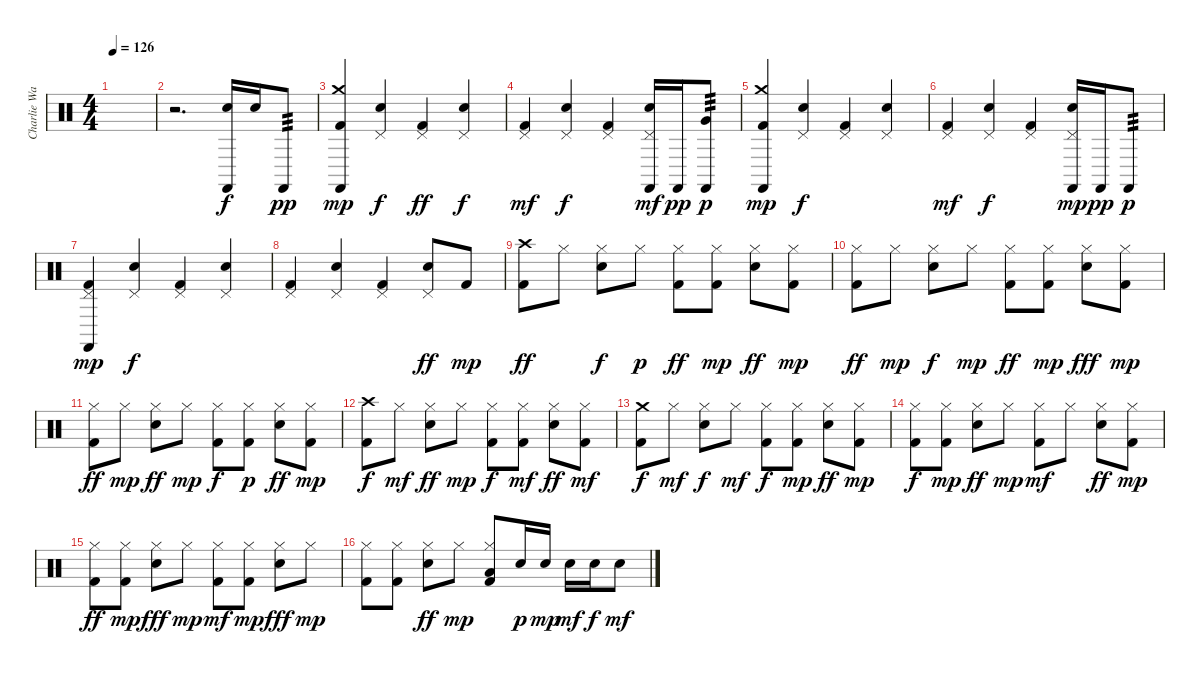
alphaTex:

\track ("Charlie Watts" "Charlie Wa") {instrument percussion}
\staff {score}
\articulation defaults
\ts (4 4)
\tempo 126
\clef neutral
\ks c
|
r.2{d} ("Electric Snare (hit)" "Castanets (hit)").16 "Electric Snare (hit)".16{dy f} "Castanets (hit)".8{tp 3 dy pp} |
("Kick (hit) 2" "Crash medium (hit)" "Castanets (hit)").4{dy mp} ("Electric Snare (hit)" "Pedal Hi-Hat (hit)").4{dy f} ("Kick (hit) 2" "Pedal Hi-Hat (hit)").4{dy ff} ("Electric Snare (hit)" "Pedal Hi-Hat (hit)").4{dy f} |
("Kick (hit) 2" "Pedal Hi-Hat (hit)").4{dy mf} ("Electric Snare (hit)" "Pedal Hi-Hat (hit)").4{dy f} ("Kick (hit) 2" "Pedal Hi-Hat (hit)").4 ("Electric Snare (hit)" "Castanets (hit)" "Pedal Hi-Hat (hit)").16{dy mf} "Castanets (hit)".16{dy pp} ("Very Low Tom (hit)" "Castanets (hit)").8{tp 3 dy p} |
("Kick (hit) 2" "Crash medium (hit)" "Castanets (hit)").4{dy mp} ("Electric Snare (hit)" "Pedal Hi-Hat (hit)").4{dy f} ("Kick (hit) 2" "Pedal Hi-Hat (hit)").4 ("Electric Snare (hit)" "Pedal Hi-Hat (hit)").4 |
("Kick (hit) 2" "Pedal Hi-Hat (hit)").4{dy mf} ("Electric Snare (hit)" "Pedal Hi-Hat (hit)").4{dy f} ("Kick (hit) 2" "Pedal Hi-Hat (hit)").4 ("Electric Snare (hit)" "Castanets (hit)" "Pedal Hi-Hat (hit)").16{dy mp} "Castanets (hit)".16{dy pp} "Castanets (hit)".8{tp 3 dy p} |
("Kick (hit) 2" "Pedal Hi-Hat (hit)" "Castanets (hit)").4{dy mp} ("Electric Snare (hit)" "Pedal Hi-Hat (hit)").4{dy f} ("Kick (hit) 2" "Pedal Hi-Hat (hit)").4 ("Electric Snare (hit)" "Pedal Hi-Hat (hit)").4 |
("Kick (hit) 2" "Pedal Hi-Hat (hit)").4 ("Electric Snare (hit)" "Pedal Hi-Hat (hit)").4 ("Kick (hit) 2" "Pedal Hi-Hat (hit)").4 ("Electric Snare (hit)" "Pedal Hi-Hat (hit)").8{dy ff} "Kick (hit) 2".8{dy mp} |
("Kick (hit) 2" "Crash high (hit)").8{dy ff} "Hi-Hat (closed)".8 ("Electric Snare (hit)" "Hi-Hat (closed)").8{dy f} "Hi-Hat (closed)".8{dy p} ("Kick (hit) 2" "Hi-Hat (closed)").8{dy ff} ("Kick (hit) 2" "Hi-Hat (closed)").8{dy mp} ("Electric Snare (hit)" "Hi-Hat (closed)").8{dy ff} ("Kick (hit) 2" "Hi-Hat (closed)").8{dy mp} |
("Kick (hit) 2" "Hi-Hat (closed)").8{dy ff} "Hi-Hat (closed)".8{dy mp} ("Electric Snare (hit)" "Hi-Hat (closed)").8{dy f} "Hi-Hat (closed)".8{dy mp} ("Kick (hit) 2" "Hi-Hat (closed)").8{dy ff} ("Kick (hit) 2" "Hi-Hat (closed)").8{dy mp} ("Electric Snare (hit)" "Hi-Hat (closed)").8{dy fff} ("Kick (hit) 2" "Hi-Hat (closed)").8{dy mp} |
("Kick (hit) 2" "Hi-Hat (closed)").8{dy ff} "Hi-Hat (closed)".8{dy mp} ("Electric Snare (hit)" "Hi-Hat (closed)").8{dy ff} "Hi-Hat (closed)".8{dy mp} ("Kick (hit) 2" "Hi-Hat (closed)").8{dy f} ("Kick (hit) 2" "Hi-Hat (closed)").8{dy p} ("Electric Snare (hit)" "Hi-Hat (closed)").8{dy ff} ("Kick (hit) 2" "Hi-Hat (closed)").8{dy mp} |
("Kick (hit) 2" "Crash high (hit)").8{dy f} "Hi-Hat (closed)".8{dy mf} ("Electric Snare (hit)" "Hi-Hat (closed)").8{dy ff} "Hi-Hat (closed)".8{dy mp} ("Kick (hit) 2" "Hi-Hat (closed)").8{dy f} ("Kick (hit) 2" "Hi-Hat (closed)").8{dy mf} ("Electric Snare (hit)" "Hi-Hat (closed)").8{dy ff} ("Kick (hit) 2" "Hi-Hat (closed)").8{dy mf} |
("Kick (hit) 2" "Crash medium (hit)").8{dy f} "Hi-Hat (closed)".8{dy mf} ("Electric Snare (hit)" "Hi-Hat (closed)").8{dy f} "Hi-Hat (closed)".8{dy mf} ("Kick (hit) 2" "Hi-Hat (closed)").8{dy f} ("Kick (hit) 2" "Hi-Hat (closed)").8{dy mp} ("Electric Snare (hit)" "Hi-Hat (closed)").8{dy ff} ("Kick (hit) 2" "Hi-Hat (closed)").8{dy mp} |
("Kick (hit) 2" "Hi-Hat (closed)").8{dy f} ("Kick (hit) 2" "Hi-Hat (closed)").8{dy mp} ("Electric Snare (hit)" "Hi-Hat (closed)").8{dy ff} "Hi-Hat (closed)".8{dy mp} ("Kick (hit) 2" "Hi-Hat (closed)").8{dy mf} "Hi-Hat (closed)".8 ("Electric Snare (hit)" "Hi-Hat (closed)").8{dy ff} ("Kick (hit) 2" "Hi-Hat (closed)").8{dy mp} |
("Kick (hit) 2" "Hi-Hat (closed)").8{dy ff} ("Kick (hit) 2" "Hi-Hat (closed)").8{dy mp} ("Electric Snare (hit)" "Hi-Hat (closed)").8{dy fff} "Hi-Hat (closed)".8{dy mp} ("Kick (hit) 2" "Hi-Hat (closed)").8{dy mf} ("Kick (hit) 2" "Hi-Hat (closed)").8{dy mp} ("Electric Snare (hit)" "Hi-Hat (closed)").8{dy fff} "Hi-Hat (closed)".8{dy mp} |
("Kick (hit) 2" "Hi-Hat (closed)").8 ("Kick (hit) 2" "Hi-Hat (closed)").8 ("Electric Snare (hit)" "Hi-Hat (closed)").8{dy ff} "Hi-Hat (closed)".8{dy mp} ("Kick (hit) 2" "Hi-Hat (closed)" "Low Tom (hit)").8 "Electric Snare (hit)".16{dy p} "Electric Snare (hit)".16{dy mp} "Electric Snare (hit)".16{dy mf} "Electric Snare (hit)".16{dy f} "Electric Snare (hit)".8{dy mf}
